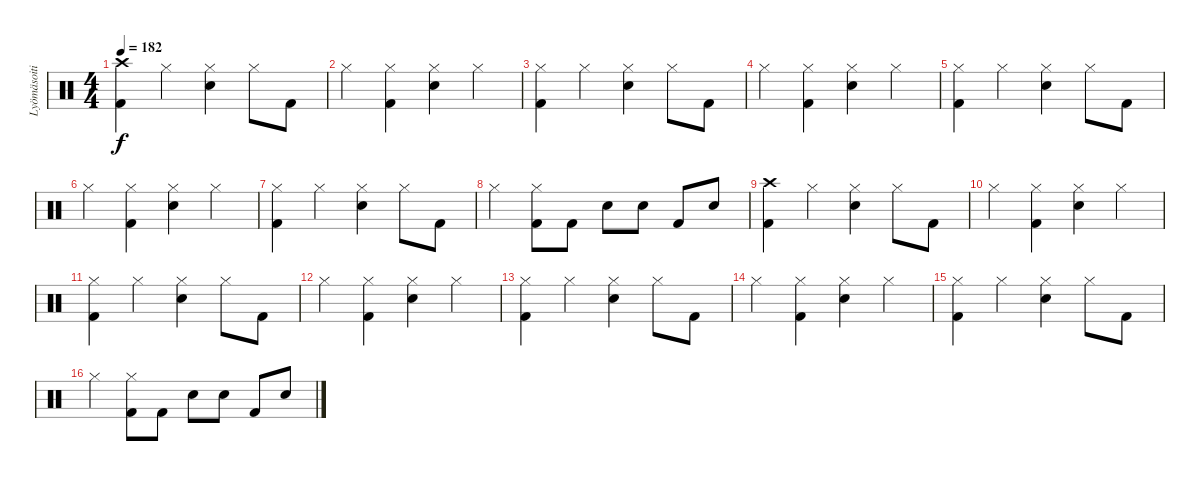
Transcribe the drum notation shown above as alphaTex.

\track ("Lyömäsoitin" "Lyömäsoiti") {instrument percussion}
\staff {score}
\articulation defaults
\ts (4 4)
\tempo 182
\clef neutral
\ks c
("Crash high (hit)" "Kick (hit) 2").4{dy f} "Hi-Hat (closed)".4 ("Hi-Hat (closed)" "Electric Snare (hit)").4 "Hi-Hat (closed)".8 "Kick (hit) 2".8 |
"Hi-Hat (closed)".4 ("Hi-Hat (closed)" "Kick (hit) 2").4 ("Hi-Hat (closed)" "Electric Snare (hit)").4 "Hi-Hat (closed)".4 |
("Hi-Hat (closed)" "Kick (hit) 2").4 "Hi-Hat (closed)".4 ("Hi-Hat (closed)" "Electric Snare (hit)").4 "Hi-Hat (closed)".8 "Kick (hit) 2".8 |
"Hi-Hat (closed)".4 ("Hi-Hat (closed)" "Kick (hit) 2").4 ("Hi-Hat (closed)" "Electric Snare (hit)").4 "Hi-Hat (closed)".4 |
("Hi-Hat (closed)" "Kick (hit) 2").4 "Hi-Hat (closed)".4 ("Hi-Hat (closed)" "Electric Snare (hit)").4 "Hi-Hat (closed)".8 "Kick (hit) 2".8 |
"Hi-Hat (closed)".4 ("Hi-Hat (closed)" "Kick (hit) 2").4 ("Hi-Hat (closed)" "Electric Snare (hit)").4 "Hi-Hat (closed)".4 |
("Hi-Hat (closed)" "Kick (hit) 2").4 "Hi-Hat (closed)".4 ("Hi-Hat (closed)" "Electric Snare (hit)").4 "Hi-Hat (closed)".8 "Kick (hit) 2".8 |
"Hi-Hat (closed)".4 ("Hi-Hat (closed)" "Kick (hit) 2").8 "Kick (hit) 2".8 "Electric Snare (hit)".8 "Electric Snare (hit)".8 "Kick (hit) 2".8 "Electric Snare (hit)".8 |
("Crash high (hit)" "Kick (hit) 2").4 "Hi-Hat (closed)".4 ("Hi-Hat (closed)" "Electric Snare (hit)").4 "Hi-Hat (closed)".8 "Kick (hit) 2".8 |
"Hi-Hat (closed)".4 ("Hi-Hat (closed)" "Kick (hit) 2").4 ("Hi-Hat (closed)" "Electric Snare (hit)").4 "Hi-Hat (closed)".4 |
("Hi-Hat (closed)" "Kick (hit) 2").4 "Hi-Hat (closed)".4 ("Hi-Hat (closed)" "Electric Snare (hit)").4 "Hi-Hat (closed)".8 "Kick (hit) 2".8 |
"Hi-Hat (closed)".4 ("Hi-Hat (closed)" "Kick (hit) 2").4 ("Hi-Hat (closed)" "Electric Snare (hit)").4 "Hi-Hat (closed)".4 |
("Hi-Hat (closed)" "Kick (hit) 2").4 "Hi-Hat (closed)".4 ("Hi-Hat (closed)" "Electric Snare (hit)").4 "Hi-Hat (closed)".8 "Kick (hit) 2".8 |
"Hi-Hat (closed)".4 ("Hi-Hat (closed)" "Kick (hit) 2").4 ("Hi-Hat (closed)" "Electric Snare (hit)").4 "Hi-Hat (closed)".4 |
("Hi-Hat (closed)" "Kick (hit) 2").4 "Hi-Hat (closed)".4 ("Hi-Hat (closed)" "Electric Snare (hit)").4 "Hi-Hat (closed)".8 "Kick (hit) 2".8 |
"Hi-Hat (closed)".4 ("Hi-Hat (closed)" "Kick (hit) 2").8 "Kick (hit) 2".8 "Electric Snare (hit)".8 "Electric Snare (hit)".8 "Kick (hit) 2".8 "Electric Snare (hit)".8
